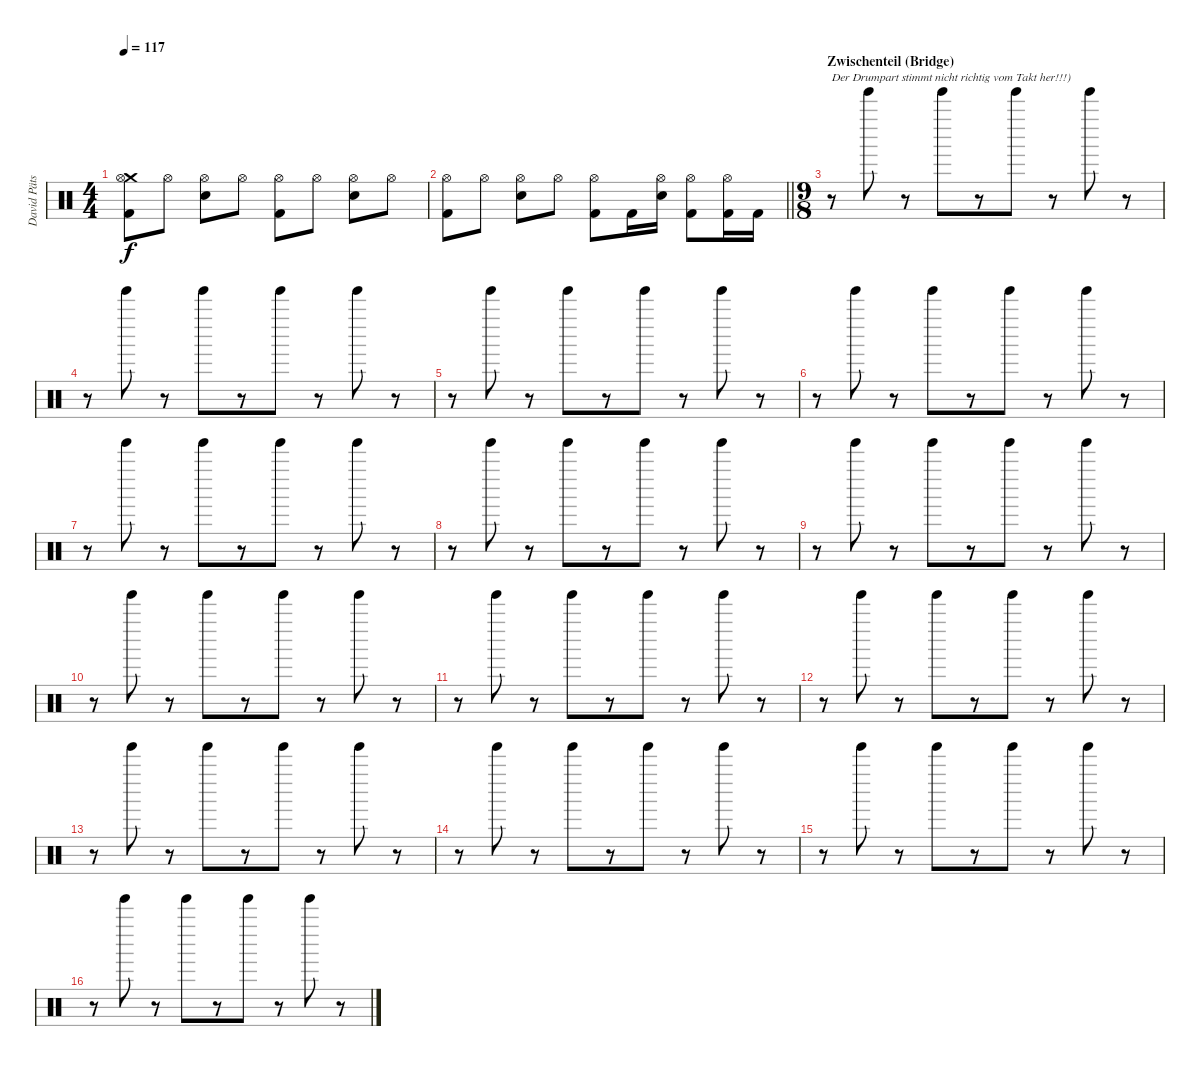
\track ("David Pätsch" "David Päts") {instrument percussion}
\staff {score}
\articulation defaults
\ts (4 4)
\tempo 117
\clef neutral
\ks c
("Crash medium (hit)" "Hi-Hat (open)" "Kick (hit) 2").8{dy f} "Hi-Hat (open)".8 ("Hi-Hat (open)" "Snare (hit) 2").8 "Hi-Hat (open)".8 ("Hi-Hat (open)" "Kick (hit) 2").8 "Hi-Hat (open)".8 ("Hi-Hat (open)" "Snare (hit) 2").8 "Hi-Hat (open)".8 |
\barLineRight lightlight
("Hi-Hat (open)" "Kick (hit) 2").8 "Hi-Hat (open)".8 ("Hi-Hat (open)" "Snare (hit) 2").8 "Hi-Hat (open)".8 ("Hi-Hat (open)" "Kick (hit) 2").8 "Kick (hit) 2".16 ("Hi-Hat (open)" "Snare (hit) 2").16 ("Hi-Hat (open)" "Kick (hit) 2").8 ("Hi-Hat (open)" "Kick (hit) 2").16 "Kick (hit) 2".16 |
\ts (9 8)
\section ("" "Zwischenteil (Bridge)")
r.8{txt "Der Drumpart stimmt nicht richtig vom Takt her!!!)" volume 3} "Tinkle Bell (hit)".8 r.8 "Tinkle Bell (hit)".8 r.8 "Tinkle Bell (hit)".8 r.8 "Tinkle Bell (hit)".8 r.8 |
r.8 "Tinkle Bell (hit)".8 r.8 "Tinkle Bell (hit)".8 r.8 "Tinkle Bell (hit)".8 r.8 "Tinkle Bell (hit)".8 r.8 |
r.8 "Tinkle Bell (hit)".8 r.8 "Tinkle Bell (hit)".8 r.8 "Tinkle Bell (hit)".8 r.8 "Tinkle Bell (hit)".8 r.8 |
r.8 "Tinkle Bell (hit)".8 r.8 "Tinkle Bell (hit)".8 r.8 "Tinkle Bell (hit)".8 r.8 "Tinkle Bell (hit)".8 r.8 |
r.8 "Tinkle Bell (hit)".8 r.8 "Tinkle Bell (hit)".8 r.8 "Tinkle Bell (hit)".8 r.8 "Tinkle Bell (hit)".8 r.8 |
r.8 "Tinkle Bell (hit)".8 r.8 "Tinkle Bell (hit)".8 r.8 "Tinkle Bell (hit)".8 r.8 "Tinkle Bell (hit)".8 r.8 |
r.8 "Tinkle Bell (hit)".8 r.8 "Tinkle Bell (hit)".8 r.8 "Tinkle Bell (hit)".8 r.8 "Tinkle Bell (hit)".8 r.8 |
r.8 "Tinkle Bell (hit)".8 r.8 "Tinkle Bell (hit)".8 r.8 "Tinkle Bell (hit)".8 r.8 "Tinkle Bell (hit)".8 r.8 |
r.8 "Tinkle Bell (hit)".8 r.8 "Tinkle Bell (hit)".8 r.8 "Tinkle Bell (hit)".8 r.8 "Tinkle Bell (hit)".8 r.8 |
r.8 "Tinkle Bell (hit)".8 r.8 "Tinkle Bell (hit)".8 r.8 "Tinkle Bell (hit)".8 r.8 "Tinkle Bell (hit)".8 r.8 |
r.8 "Tinkle Bell (hit)".8 r.8 "Tinkle Bell (hit)".8 r.8 "Tinkle Bell (hit)".8 r.8 "Tinkle Bell (hit)".8 r.8 |
r.8 "Tinkle Bell (hit)".8 r.8 "Tinkle Bell (hit)".8 r.8 "Tinkle Bell (hit)".8 r.8 "Tinkle Bell (hit)".8 r.8 |
r.8 "Tinkle Bell (hit)".8 r.8 "Tinkle Bell (hit)".8 r.8 "Tinkle Bell (hit)".8 r.8 "Tinkle Bell (hit)".8 r.8 |
r.8 "Tinkle Bell (hit)".8 r.8 "Tinkle Bell (hit)".8 r.8 "Tinkle Bell (hit)".8 r.8 "Tinkle Bell (hit)".8 r.8
